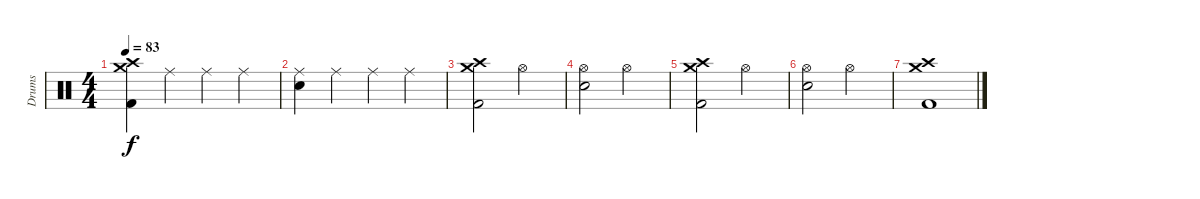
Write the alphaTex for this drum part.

\track ("Drums" "Drums") {instrument percussion}
\staff {score}
\articulation defaults
\ts (4 4)
\tempo 83
\clef neutral
\ks c
("Crash medium (hit)" "Crash high (hit)" "Kick (hit) 2").4{dy f} "Ride (middle)".4 "Ride (middle)".4 "Ride (middle)".4 |
("Ride (middle)" "Snare (hit) 2").4 "Ride (middle)".4 "Ride (middle)".4 "Ride (middle)".4 |
("Crash medium (hit)" "Crash high (hit)" "Kick (hit) 2").2 "Hi-Hat (open)".2 |
("Hi-Hat (open)" "Snare (hit) 2").2 "Hi-Hat (open)".2 |
("Crash medium (hit)" "Crash high (hit)" "Kick (hit) 2").2 "Hi-Hat (open)".2 |
("Hi-Hat (open)" "Snare (hit) 2").2 "Hi-Hat (open)".2 |
("Crash high (hit)" "Crash medium (hit)" "Kick (hit) 2").1
